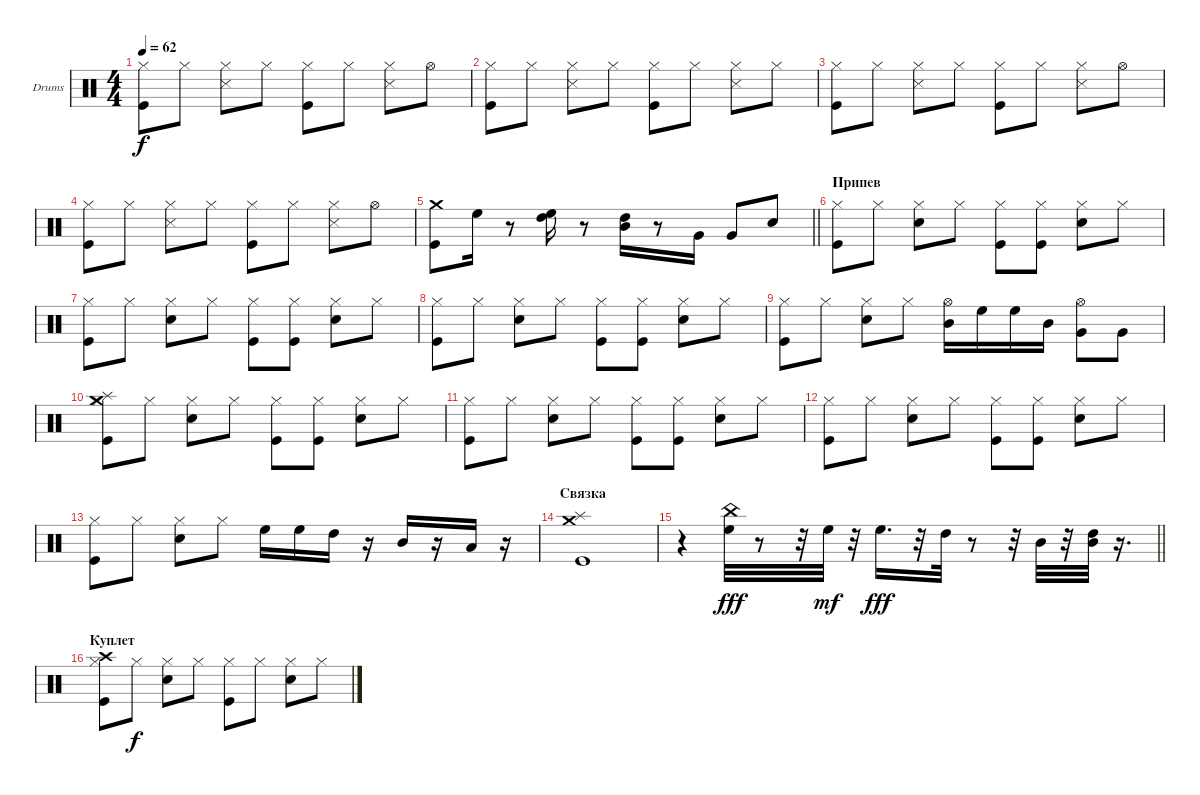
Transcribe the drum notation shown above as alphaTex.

\bracketExtendMode groupsimilarinstruments
\firstSystemTrackNameOrientation horizontal
\otherSystemsTrackNameOrientation horizontal
\track ("Drumkit" "Drums") {instrument percussion}
\staff {score}
\articulation defaults
\ts (4 4)
\tempo 62
\clef neutral
\ks c
("Kick (hit)" "Hi-Hat (closed)").8{dy f} "Hi-Hat (closed)".8 ("Snare (side stick) 3" "Hi-Hat (closed)").8 "Hi-Hat (closed)".8 ("Kick (hit)" "Hi-Hat (closed)").8 "Hi-Hat (closed)".8 ("Snare (side stick) 3" "Hi-Hat (closed)").8 "Hi-Hat (open)".8 |
("Kick (hit)" "Hi-Hat (closed)").8 "Hi-Hat (closed)".8 ("Snare (side stick) 3" "Hi-Hat (closed)").8 "Hi-Hat (closed)".8 ("Kick (hit)" "Hi-Hat (closed)").8 "Hi-Hat (closed)".8 ("Snare (side stick) 3" "Hi-Hat (closed)").8 "Hi-Hat (closed)".8 |
("Kick (hit)" "Hi-Hat (closed)").8 "Hi-Hat (closed)".8 ("Snare (side stick) 3" "Hi-Hat (closed)").8 "Hi-Hat (closed)".8 ("Kick (hit)" "Hi-Hat (closed)").8 "Hi-Hat (closed)".8 ("Snare (side stick) 3" "Hi-Hat (closed)").8 "Hi-Hat (open)".8 |
("Kick (hit)" "Hi-Hat (closed)").8 "Hi-Hat (closed)".8 ("Snare (side stick) 3" "Hi-Hat (closed)").8 "Hi-Hat (closed)".8 ("Kick (hit)" "Hi-Hat (closed)").8 "Hi-Hat (closed)".8 ("Snare (side stick) 3" "Hi-Hat (closed)").8 "Hi-Hat (open)".8 |
\barLineRight lightlight
("Crash medium (hit)" "Kick (hit)").8 "High Floor Tom (hit)".16 r.8 ("High Tom (hit)" "High Floor Tom (hit)").16 r.8 ("High Tom (hit)" "Mid Tom (hit)").16 r.8 "Very Low Tom (hit)".16 "Very Low Tom (hit)".8 "Snare (hit) 2".8 |
\section ("" "Припев")
("Kick (hit)" "Hi-Hat (closed)").8 "Hi-Hat (closed)".8 ("Snare (hit) 2" "Hi-Hat (closed)").8 "Hi-Hat (closed)".8 ("Kick (hit)" "Hi-Hat (closed)").8 ("Kick (hit)" "Hi-Hat (closed)").8 ("Snare (hit) 2" "Hi-Hat (closed)").8 "Hi-Hat (closed)".8 |
("Kick (hit)" "Hi-Hat (closed)").8 "Hi-Hat (closed)".8 ("Snare (hit) 2" "Hi-Hat (closed)").8 "Hi-Hat (closed)".8 ("Kick (hit)" "Hi-Hat (closed)").8 ("Kick (hit)" "Hi-Hat (closed)").8 ("Snare (hit) 2" "Hi-Hat (closed)").8 "Hi-Hat (closed)".8 |
("Kick (hit)" "Hi-Hat (closed)").8 "Hi-Hat (closed)".8 ("Snare (hit) 2" "Hi-Hat (closed)").8 "Hi-Hat (closed)".8 ("Kick (hit)" "Hi-Hat (closed)").8 ("Kick (hit)" "Hi-Hat (closed)").8 ("Snare (hit) 2" "Hi-Hat (closed)").8 "Hi-Hat (closed)".8 |
("Kick (hit)" "Hi-Hat (closed)").8 "Hi-Hat (closed)".8 ("Snare (hit) 2" "Hi-Hat (closed)").8 "Hi-Hat (closed)".8 ("Hi-Hat (open)" "Mid Tom (hit)").16 "High Floor Tom (hit)".16 "High Floor Tom (hit)".16 "Mid Tom (hit)".16 ("Hi-Hat (open)" "Very Low Tom (hit)").8 "Very Low Tom (hit)".8 |
("Kick (hit)" "Hi-Hat (closed)" "Splash (hit)" "Crash medium (hit)").8 "Hi-Hat (closed)".8 ("Snare (hit) 2" "Hi-Hat (closed)").8 "Hi-Hat (closed)".8 ("Kick (hit)" "Hi-Hat (closed)").8 ("Kick (hit)" "Hi-Hat (closed)").8 ("Snare (hit) 2" "Hi-Hat (closed)").8 "Hi-Hat (closed)".8 |
("Kick (hit)" "Hi-Hat (closed)").8 "Hi-Hat (closed)".8 ("Snare (hit) 2" "Hi-Hat (closed)").8 "Hi-Hat (closed)".8 ("Kick (hit)" "Hi-Hat (closed)").8 ("Kick (hit)" "Hi-Hat (closed)").8 ("Snare (hit) 2" "Hi-Hat (closed)").8 "Hi-Hat (closed)".8 |
("Kick (hit)" "Hi-Hat (closed)").8 "Hi-Hat (closed)".8 ("Snare (hit) 2" "Hi-Hat (closed)").8 "Hi-Hat (closed)".8 ("Kick (hit)" "Hi-Hat (closed)").8 ("Kick (hit)" "Hi-Hat (closed)").8 ("Snare (hit) 2" "Hi-Hat (closed)").8 "Hi-Hat (closed)".8 |
("Kick (hit)" "Hi-Hat (closed)").8 "Hi-Hat (closed)".8 ("Snare (hit) 2" "Hi-Hat (closed)").8 "Hi-Hat (closed)".8 "High Floor Tom (hit)".16 "High Floor Tom (hit)".16 "High Tom (hit)".16 r.16 "Mid Tom (hit)".16 r.16 "Low Tom (hit)".16 r.16 |
\section ("" "Связка")
("Splash (hit)" "Crash medium (hit)" "Kick (hit)").1 |
\barLineRight lightlight
r.4 ("High Floor Tom (hit)" "China (hit)").32{dy fff} r.8 r.32 "High Floor Tom (hit)".32{dy mf} r.32 "High Floor Tom (hit)".16{d dy fff} r.32 "High Tom (hit)".32 r.8 r.32 "Mid Tom (hit)".32 r.32 ("Mid Tom (hit)" "High Tom (hit)").32 r.16{d} |
\section ("" "Куплет")
("Crash high (hit)" "Kick (hit)" "Hi-Hat (closed)").8 "Hi-Hat (closed)".8{dy f} ("Hi-Hat (closed)" "Snare (hit) 2").8 "Hi-Hat (closed)".8 ("Kick (hit)" "Hi-Hat (closed)").8 "Hi-Hat (closed)".8 ("Hi-Hat (closed)" "Snare (hit) 2").8 "Hi-Hat (closed)".8
